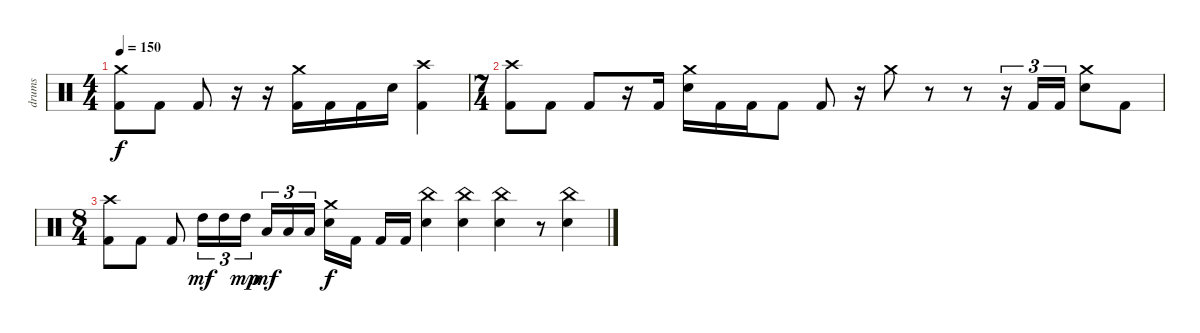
\track ("drums" "drums") {instrument percussion}
\staff {score}
\articulation defaults
\ts (4 4)
\tempo 150
\clef neutral
\ks c
("Crash medium (hit)" "Kick (hit) 2").8{dy f} "Kick (hit) 2".8 "Kick (hit) 2".8 r.16 r.16 ("Crash medium (hit)" "Kick (hit) 2").16 "Kick (hit) 2".16 "Kick (hit) 2".16 "Electric Snare (hit)".16 ("Crash high (hit)" "Kick (hit) 2").4 |
\ts (7 4)
("Crash high (hit)" "Kick (hit) 2").8 "Kick (hit) 2".8 "Kick (hit) 2".8 r.16 "Kick (hit) 2".16 ("Crash medium (hit)" "Electric Snare (hit)").16 "Kick (hit) 2".16 "Kick (hit) 2".16 "Kick (hit) 2".8 "Kick (hit) 2".8 r.16 "Crash medium (hit)".8 r.8 r.8 r.16{tu (3 2)} "Kick (hit) 2".16{tu (3 2)} "Kick (hit) 2".16{tu (3 2)} ("Crash medium (hit)" "Electric Snare (hit)").8 "Kick (hit) 2".8 |
\ts (8 4)
("Crash high (hit)" "Kick (hit) 2").8 "Kick (hit) 2".8 "Kick (hit) 2".8 "High Tom (hit)".16{tu (3 2) dy mf} "High Tom (hit)".16{tu (3 2)} "High Tom (hit)".16{tu (3 2) dy mp} "Low Tom (hit)".16{tu (3 2) dy mf} "Low Tom (hit)".16{tu (3 2)} "Low Tom (hit)".16{tu (3 2)} ("Crash medium (hit)" "Electric Snare (hit)").16{dy f} "Kick (hit) 2".16 "Kick (hit) 2".16 "Kick (hit) 2".16 ("China (hit)" "Electric Snare (hit)").4 ("China (hit)" "Electric Snare (hit)").4 ("China (hit)" "Electric Snare (hit)").4 r.8 ("China (hit)" "Electric Snare (hit)").4
